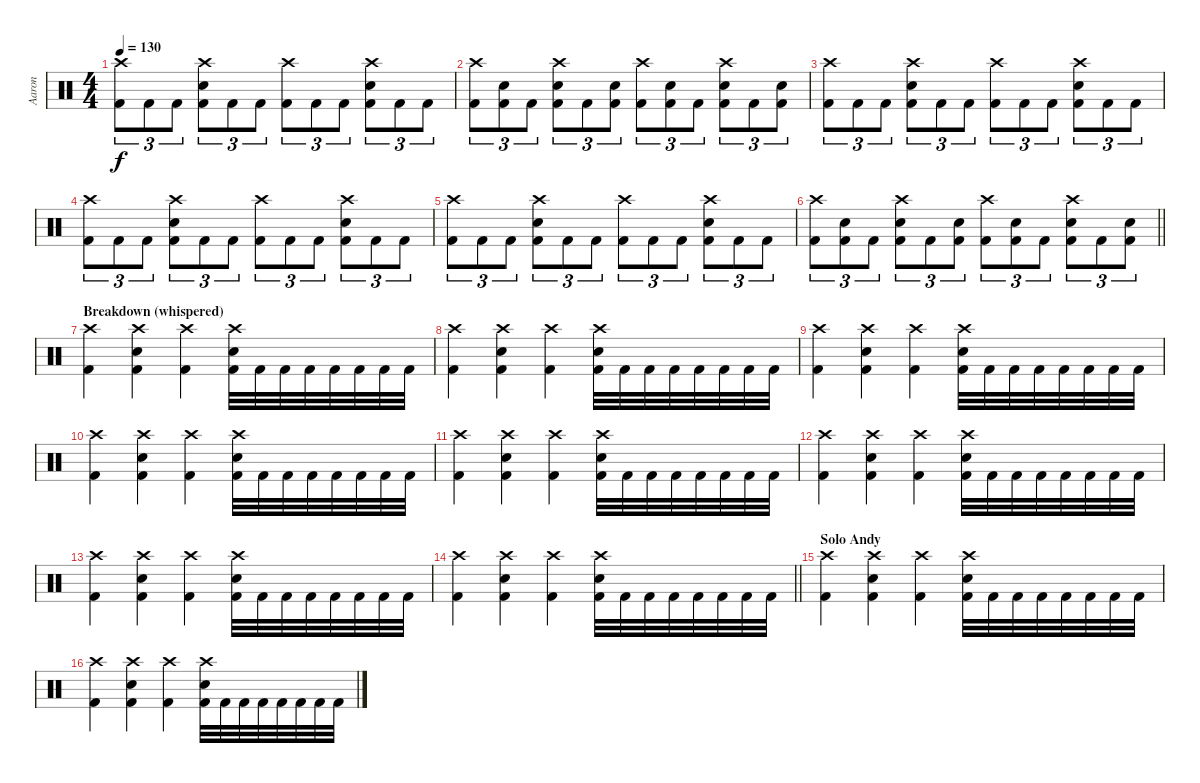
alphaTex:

\track ("Aaron" "Aaron") {instrument percussion}
\staff {score}
\articulation defaults
\ts (4 4)
\tempo 130
\clef neutral
\ks c
("Crash high (hit)" "Kick (hit) 2").8{tu (3 2) dy f} "Kick (hit) 2".8{tu (3 2)} "Kick (hit) 2".8{tu (3 2)} ("Crash high (hit)" "Kick (hit) 2" "Snare (hit) 2").8{tu (3 2)} "Kick (hit) 2".8{tu (3 2)} "Kick (hit) 2".8{tu (3 2)} ("Crash high (hit)" "Kick (hit) 2").8{tu (3 2)} "Kick (hit) 2".8{tu (3 2)} "Kick (hit) 2".8{tu (3 2)} ("Crash high (hit)" "Kick (hit) 2" "Snare (hit) 2").8{tu (3 2)} "Kick (hit) 2".8{tu (3 2)} "Kick (hit) 2".8{tu (3 2)} |
("Crash high (hit)" "Kick (hit) 2").8{tu (3 2)} ("Snare (hit) 2" "Kick (hit) 2").8{tu (3 2)} "Kick (hit) 2".8{tu (3 2)} ("Crash high (hit)" "Kick (hit) 2" "Snare (hit) 2").8{tu (3 2)} "Kick (hit) 2".8{tu (3 2)} ("Snare (hit) 2" "Kick (hit) 2").8{tu (3 2)} ("Crash high (hit)" "Kick (hit) 2").8{tu (3 2)} ("Snare (hit) 2" "Kick (hit) 2").8{tu (3 2)} "Kick (hit) 2".8{tu (3 2)} ("Crash high (hit)" "Kick (hit) 2" "Snare (hit) 2").8{tu (3 2)} "Kick (hit) 2".8{tu (3 2)} ("Snare (hit) 2" "Kick (hit) 2").8{tu (3 2)} |
("Crash high (hit)" "Kick (hit) 2").8{tu (3 2)} "Kick (hit) 2".8{tu (3 2)} "Kick (hit) 2".8{tu (3 2)} ("Crash high (hit)" "Kick (hit) 2" "Snare (hit) 2").8{tu (3 2)} "Kick (hit) 2".8{tu (3 2)} "Kick (hit) 2".8{tu (3 2)} ("Crash high (hit)" "Kick (hit) 2").8{tu (3 2)} "Kick (hit) 2".8{tu (3 2)} "Kick (hit) 2".8{tu (3 2)} ("Crash high (hit)" "Kick (hit) 2" "Snare (hit) 2").8{tu (3 2)} "Kick (hit) 2".8{tu (3 2)} "Kick (hit) 2".8{tu (3 2)} |
("Crash high (hit)" "Kick (hit) 2").8{tu (3 2)} "Kick (hit) 2".8{tu (3 2)} "Kick (hit) 2".8{tu (3 2)} ("Crash high (hit)" "Kick (hit) 2" "Snare (hit) 2").8{tu (3 2)} "Kick (hit) 2".8{tu (3 2)} "Kick (hit) 2".8{tu (3 2)} ("Crash high (hit)" "Kick (hit) 2").8{tu (3 2)} "Kick (hit) 2".8{tu (3 2)} "Kick (hit) 2".8{tu (3 2)} ("Crash high (hit)" "Kick (hit) 2" "Snare (hit) 2").8{tu (3 2)} "Kick (hit) 2".8{tu (3 2)} "Kick (hit) 2".8{tu (3 2)} |
("Crash high (hit)" "Kick (hit) 2").8{tu (3 2)} "Kick (hit) 2".8{tu (3 2)} "Kick (hit) 2".8{tu (3 2)} ("Crash high (hit)" "Kick (hit) 2" "Snare (hit) 2").8{tu (3 2)} "Kick (hit) 2".8{tu (3 2)} "Kick (hit) 2".8{tu (3 2)} ("Crash high (hit)" "Kick (hit) 2").8{tu (3 2)} "Kick (hit) 2".8{tu (3 2)} "Kick (hit) 2".8{tu (3 2)} ("Crash high (hit)" "Kick (hit) 2" "Snare (hit) 2").8{tu (3 2)} "Kick (hit) 2".8{tu (3 2)} "Kick (hit) 2".8{tu (3 2)} |
\barLineRight lightlight
("Crash high (hit)" "Kick (hit) 2").8{tu (3 2)} ("Snare (hit) 2" "Kick (hit) 2").8{tu (3 2)} "Kick (hit) 2".8{tu (3 2)} ("Crash high (hit)" "Kick (hit) 2" "Snare (hit) 2").8{tu (3 2)} "Kick (hit) 2".8{tu (3 2)} ("Snare (hit) 2" "Kick (hit) 2").8{tu (3 2)} ("Crash high (hit)" "Kick (hit) 2").8{tu (3 2)} ("Snare (hit) 2" "Kick (hit) 2").8{tu (3 2)} "Kick (hit) 2".8{tu (3 2)} ("Crash high (hit)" "Kick (hit) 2" "Snare (hit) 2").8{tu (3 2)} "Kick (hit) 2".8{tu (3 2)} ("Snare (hit) 2" "Kick (hit) 2").8{tu (3 2)} |
\section ("" "Breakdown (whispered)")
("Crash high (hit)" "Kick (hit) 2").4 ("Crash high (hit)" "Snare (hit) 2" "Kick (hit) 2").4 ("Crash high (hit)" "Kick (hit) 2").4 ("Crash high (hit)" "Snare (hit) 2" "Kick (hit) 2").32 "Kick (hit) 2".32 "Kick (hit) 2".32 "Kick (hit) 2".32 "Kick (hit) 2".32 "Kick (hit) 2".32 "Kick (hit) 2".32 "Kick (hit) 2".32 |
("Crash high (hit)" "Kick (hit) 2").4 ("Crash high (hit)" "Snare (hit) 2" "Kick (hit) 2").4 ("Crash high (hit)" "Kick (hit) 2").4 ("Crash high (hit)" "Snare (hit) 2" "Kick (hit) 2").32 "Kick (hit) 2".32 "Kick (hit) 2".32 "Kick (hit) 2".32 "Kick (hit) 2".32 "Kick (hit) 2".32 "Kick (hit) 2".32 "Kick (hit) 2".32 |
("Crash high (hit)" "Kick (hit) 2").4 ("Crash high (hit)" "Snare (hit) 2" "Kick (hit) 2").4 ("Crash high (hit)" "Kick (hit) 2").4 ("Crash high (hit)" "Snare (hit) 2" "Kick (hit) 2").32 "Kick (hit) 2".32 "Kick (hit) 2".32 "Kick (hit) 2".32 "Kick (hit) 2".32 "Kick (hit) 2".32 "Kick (hit) 2".32 "Kick (hit) 2".32 |
("Crash high (hit)" "Kick (hit) 2").4 ("Crash high (hit)" "Snare (hit) 2" "Kick (hit) 2").4 ("Crash high (hit)" "Kick (hit) 2").4 ("Crash high (hit)" "Snare (hit) 2" "Kick (hit) 2").32 "Kick (hit) 2".32 "Kick (hit) 2".32 "Kick (hit) 2".32 "Kick (hit) 2".32 "Kick (hit) 2".32 "Kick (hit) 2".32 "Kick (hit) 2".32 |
("Crash high (hit)" "Kick (hit) 2").4 ("Crash high (hit)" "Snare (hit) 2" "Kick (hit) 2").4 ("Crash high (hit)" "Kick (hit) 2").4 ("Crash high (hit)" "Snare (hit) 2" "Kick (hit) 2").32 "Kick (hit) 2".32 "Kick (hit) 2".32 "Kick (hit) 2".32 "Kick (hit) 2".32 "Kick (hit) 2".32 "Kick (hit) 2".32 "Kick (hit) 2".32 |
("Crash high (hit)" "Kick (hit) 2").4 ("Crash high (hit)" "Snare (hit) 2" "Kick (hit) 2").4 ("Crash high (hit)" "Kick (hit) 2").4 ("Crash high (hit)" "Snare (hit) 2" "Kick (hit) 2").32 "Kick (hit) 2".32 "Kick (hit) 2".32 "Kick (hit) 2".32 "Kick (hit) 2".32 "Kick (hit) 2".32 "Kick (hit) 2".32 "Kick (hit) 2".32 |
("Crash high (hit)" "Kick (hit) 2").4 ("Crash high (hit)" "Snare (hit) 2" "Kick (hit) 2").4 ("Crash high (hit)" "Kick (hit) 2").4 ("Crash high (hit)" "Snare (hit) 2" "Kick (hit) 2").32 "Kick (hit) 2".32 "Kick (hit) 2".32 "Kick (hit) 2".32 "Kick (hit) 2".32 "Kick (hit) 2".32 "Kick (hit) 2".32 "Kick (hit) 2".32 |
\barLineRight lightlight
("Crash high (hit)" "Kick (hit) 2").4 ("Crash high (hit)" "Snare (hit) 2" "Kick (hit) 2").4 ("Crash high (hit)" "Kick (hit) 2").4 ("Crash high (hit)" "Snare (hit) 2" "Kick (hit) 2").32 "Kick (hit) 2".32 "Kick (hit) 2".32 "Kick (hit) 2".32 "Kick (hit) 2".32 "Kick (hit) 2".32 "Kick (hit) 2".32 "Kick (hit) 2".32 |
\section ("" "Solo Andy")
("Crash high (hit)" "Kick (hit) 2").4 ("Crash high (hit)" "Snare (hit) 2" "Kick (hit) 2").4 ("Crash high (hit)" "Kick (hit) 2").4 ("Crash high (hit)" "Snare (hit) 2" "Kick (hit) 2").32 "Kick (hit) 2".32 "Kick (hit) 2".32 "Kick (hit) 2".32 "Kick (hit) 2".32 "Kick (hit) 2".32 "Kick (hit) 2".32 "Kick (hit) 2".32 |
("Crash high (hit)" "Kick (hit) 2").4 ("Crash high (hit)" "Snare (hit) 2" "Kick (hit) 2").4 ("Crash high (hit)" "Kick (hit) 2").4 ("Crash high (hit)" "Snare (hit) 2" "Kick (hit) 2").32 "Kick (hit) 2".32 "Kick (hit) 2".32 "Kick (hit) 2".32 "Kick (hit) 2".32 "Kick (hit) 2".32 "Kick (hit) 2".32 "Kick (hit) 2".32
